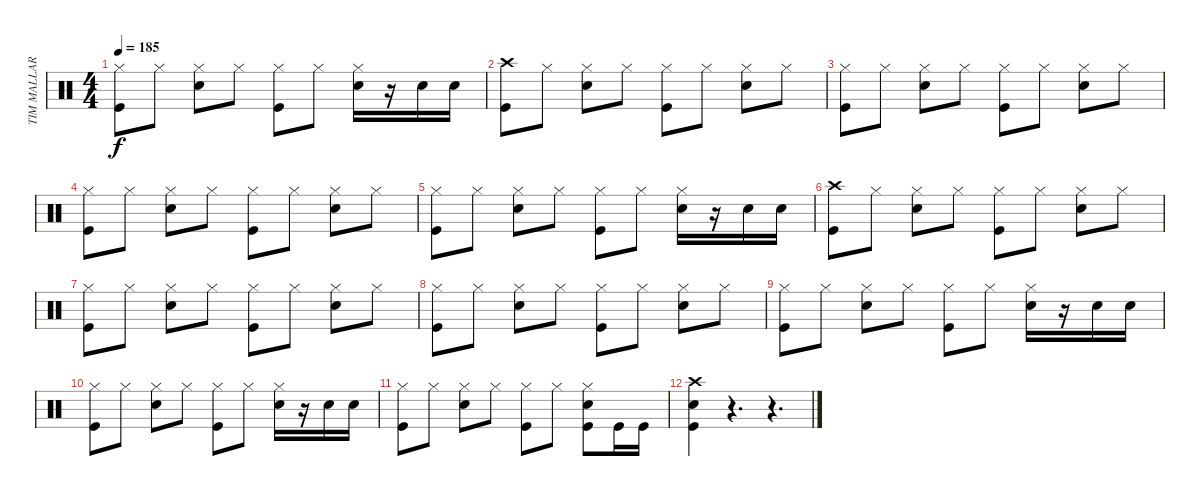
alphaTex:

\track ("TIM MALLARE - drums" "TIM MALLAR") {instrument percussion}
\staff {score}
\articulation defaults
\ts (4 4)
\tempo 185
\clef neutral
\ks c
("Hi-Hat (closed)" "Kick (hit)").8{dy f} "Hi-Hat (closed)".8 ("Hi-Hat (closed)" "Electric Snare (hit)").8 "Hi-Hat (closed)".8 ("Hi-Hat (closed)" "Kick (hit)").8 "Hi-Hat (closed)".8 ("Hi-Hat (closed)" "Electric Snare (hit)").16 r.16 "Electric Snare (hit)".16 "Electric Snare (hit)".16 |
("Crash high (hit)" "Kick (hit)").8 "Hi-Hat (closed)".8 ("Hi-Hat (closed)" "Electric Snare (hit)").8 "Hi-Hat (closed)".8 ("Hi-Hat (closed)" "Kick (hit)").8 "Hi-Hat (closed)".8 ("Hi-Hat (closed)" "Electric Snare (hit)").8 "Hi-Hat (closed)".8 |
("Hi-Hat (closed)" "Kick (hit)").8 "Hi-Hat (closed)".8 ("Hi-Hat (closed)" "Electric Snare (hit)").8 "Hi-Hat (closed)".8 ("Hi-Hat (closed)" "Kick (hit)").8 "Hi-Hat (closed)".8 ("Hi-Hat (closed)" "Electric Snare (hit)").8 "Hi-Hat (closed)".8 |
("Hi-Hat (closed)" "Kick (hit)").8 "Hi-Hat (closed)".8 ("Hi-Hat (closed)" "Electric Snare (hit)").8 "Hi-Hat (closed)".8 ("Hi-Hat (closed)" "Kick (hit)").8 "Hi-Hat (closed)".8 ("Hi-Hat (closed)" "Electric Snare (hit)").8 "Hi-Hat (closed)".8 |
("Hi-Hat (closed)" "Kick (hit)").8 "Hi-Hat (closed)".8 ("Hi-Hat (closed)" "Electric Snare (hit)").8 "Hi-Hat (closed)".8 ("Hi-Hat (closed)" "Kick (hit)").8 "Hi-Hat (closed)".8 ("Hi-Hat (closed)" "Electric Snare (hit)").16 r.16 "Electric Snare (hit)".16 "Electric Snare (hit)".16 |
("Crash high (hit)" "Kick (hit)").8 "Hi-Hat (closed)".8 ("Hi-Hat (closed)" "Electric Snare (hit)").8 "Hi-Hat (closed)".8 ("Hi-Hat (closed)" "Kick (hit)").8 "Hi-Hat (closed)".8 ("Hi-Hat (closed)" "Electric Snare (hit)").8 "Hi-Hat (closed)".8 |
("Hi-Hat (closed)" "Kick (hit)").8 "Hi-Hat (closed)".8 ("Hi-Hat (closed)" "Electric Snare (hit)").8 "Hi-Hat (closed)".8 ("Hi-Hat (closed)" "Kick (hit)").8 "Hi-Hat (closed)".8 ("Hi-Hat (closed)" "Electric Snare (hit)").8 "Hi-Hat (closed)".8 |
("Hi-Hat (closed)" "Kick (hit)").8 "Hi-Hat (closed)".8 ("Hi-Hat (closed)" "Electric Snare (hit)").8 "Hi-Hat (closed)".8 ("Hi-Hat (closed)" "Kick (hit)").8 "Hi-Hat (closed)".8 ("Hi-Hat (closed)" "Electric Snare (hit)").8 "Hi-Hat (closed)".8 |
("Hi-Hat (closed)" "Kick (hit)").8 "Hi-Hat (closed)".8 ("Hi-Hat (closed)" "Electric Snare (hit)").8 "Hi-Hat (closed)".8 ("Hi-Hat (closed)" "Kick (hit)").8 "Hi-Hat (closed)".8 ("Hi-Hat (closed)" "Electric Snare (hit)").16 r.16 "Electric Snare (hit)".16 "Electric Snare (hit)".16 |
("Hi-Hat (closed)" "Kick (hit)").8 "Hi-Hat (closed)".8 ("Hi-Hat (closed)" "Electric Snare (hit)").8 "Hi-Hat (closed)".8 ("Hi-Hat (closed)" "Kick (hit)").8 "Hi-Hat (closed)".8 ("Hi-Hat (closed)" "Electric Snare (hit)").16 r.16 "Electric Snare (hit)".16 "Electric Snare (hit)".16 |
("Hi-Hat (closed)" "Kick (hit)").8 "Hi-Hat (closed)".8 ("Hi-Hat (closed)" "Electric Snare (hit)").8 "Hi-Hat (closed)".8 ("Hi-Hat (closed)" "Kick (hit)").8 "Hi-Hat (closed)".8 ("Hi-Hat (closed)" "Electric Snare (hit)" "Kick (hit)").8 "Kick (hit)".16 "Kick (hit)".16 |
("Electric Snare (hit)" "Crash high (hit)" "Kick (hit)").4 r.4{d} r.4{d}
